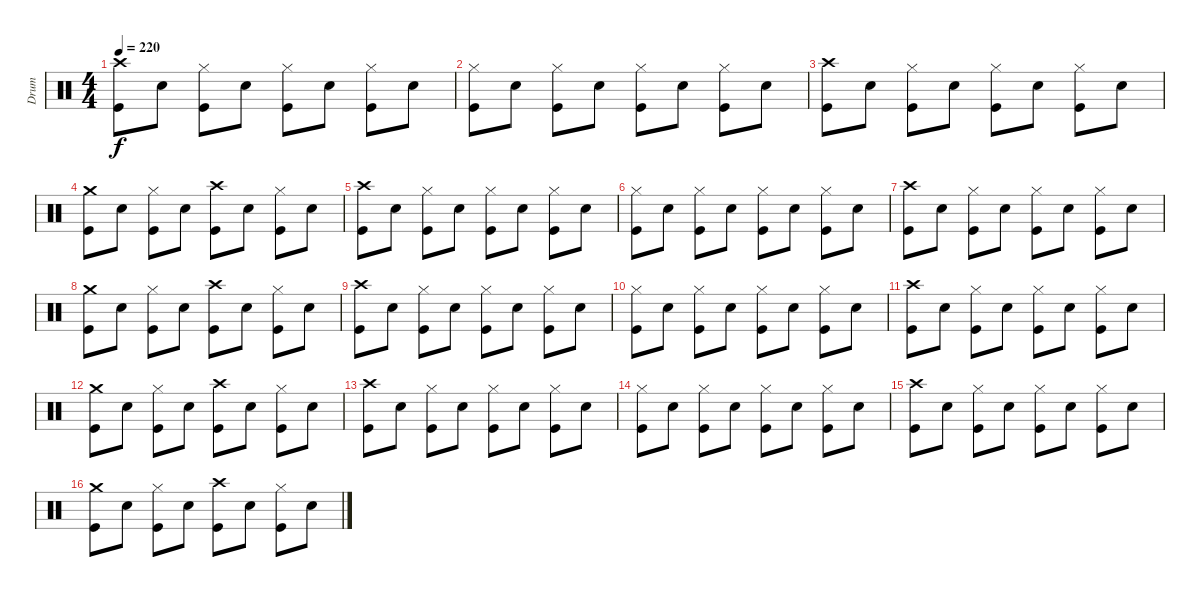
\track ("Drum" "Drum") {instrument percussion}
\staff {score}
\articulation defaults
\ts (4 4)
\tempo 220
\clef neutral
\ks c
("Crash high (hit)" "Kick (hit)").8{dy f} "Snare (hit) 2".8 ("Hi-Hat (closed)" "Kick (hit)").8 "Snare (hit) 2".8 ("Hi-Hat (closed)" "Kick (hit)").8 "Snare (hit) 2".8 ("Hi-Hat (closed)" "Kick (hit)").8 "Snare (hit) 2".8 |
("Hi-Hat (closed)" "Kick (hit)").8 "Snare (hit) 2".8 ("Hi-Hat (closed)" "Kick (hit)").8 "Snare (hit) 2".8 ("Hi-Hat (closed)" "Kick (hit)").8 "Snare (hit) 2".8 ("Hi-Hat (closed)" "Kick (hit)").8 "Snare (hit) 2".8 |
("Crash high (hit)" "Kick (hit)").8 "Snare (hit) 2".8 ("Hi-Hat (closed)" "Kick (hit)").8 "Snare (hit) 2".8 ("Hi-Hat (closed)" "Kick (hit)").8 "Snare (hit) 2".8 ("Hi-Hat (closed)" "Kick (hit)").8 "Snare (hit) 2".8 |
("Crash medium (hit)" "Kick (hit)").8 "Snare (hit) 2".8 ("Hi-Hat (closed)" "Kick (hit)").8 "Snare (hit) 2".8 ("Crash high (hit)" "Kick (hit)").8 "Snare (hit) 2".8 ("Hi-Hat (closed)" "Kick (hit)").8 "Snare (hit) 2".8 |
("Crash high (hit)" "Kick (hit)").8 "Snare (hit) 2".8 ("Hi-Hat (closed)" "Kick (hit)").8 "Snare (hit) 2".8 ("Hi-Hat (closed)" "Kick (hit)").8 "Snare (hit) 2".8 ("Hi-Hat (closed)" "Kick (hit)").8 "Snare (hit) 2".8 |
("Hi-Hat (closed)" "Kick (hit)").8 "Snare (hit) 2".8 ("Hi-Hat (closed)" "Kick (hit)").8 "Snare (hit) 2".8 ("Hi-Hat (closed)" "Kick (hit)").8 "Snare (hit) 2".8 ("Hi-Hat (closed)" "Kick (hit)").8 "Snare (hit) 2".8 |
("Crash high (hit)" "Kick (hit)").8 "Snare (hit) 2".8 ("Hi-Hat (closed)" "Kick (hit)").8 "Snare (hit) 2".8 ("Hi-Hat (closed)" "Kick (hit)").8 "Snare (hit) 2".8 ("Hi-Hat (closed)" "Kick (hit)").8 "Snare (hit) 2".8 |
("Crash medium (hit)" "Kick (hit)").8 "Snare (hit) 2".8 ("Hi-Hat (closed)" "Kick (hit)").8 "Snare (hit) 2".8 ("Crash high (hit)" "Kick (hit)").8 "Snare (hit) 2".8 ("Hi-Hat (closed)" "Kick (hit)").8 "Snare (hit) 2".8 |
("Crash high (hit)" "Kick (hit)").8 "Snare (hit) 2".8 ("Hi-Hat (closed)" "Kick (hit)").8 "Snare (hit) 2".8 ("Hi-Hat (closed)" "Kick (hit)").8 "Snare (hit) 2".8 ("Hi-Hat (closed)" "Kick (hit)").8 "Snare (hit) 2".8 |
("Hi-Hat (closed)" "Kick (hit)").8 "Snare (hit) 2".8 ("Hi-Hat (closed)" "Kick (hit)").8 "Snare (hit) 2".8 ("Hi-Hat (closed)" "Kick (hit)").8 "Snare (hit) 2".8 ("Hi-Hat (closed)" "Kick (hit)").8 "Snare (hit) 2".8 |
("Crash high (hit)" "Kick (hit)").8 "Snare (hit) 2".8 ("Hi-Hat (closed)" "Kick (hit)").8 "Snare (hit) 2".8 ("Hi-Hat (closed)" "Kick (hit)").8 "Snare (hit) 2".8 ("Hi-Hat (closed)" "Kick (hit)").8 "Snare (hit) 2".8 |
("Crash medium (hit)" "Kick (hit)").8 "Snare (hit) 2".8 ("Hi-Hat (closed)" "Kick (hit)").8 "Snare (hit) 2".8 ("Crash high (hit)" "Kick (hit)").8 "Snare (hit) 2".8 ("Hi-Hat (closed)" "Kick (hit)").8 "Snare (hit) 2".8 |
("Crash high (hit)" "Kick (hit)").8 "Snare (hit) 2".8 ("Hi-Hat (closed)" "Kick (hit)").8 "Snare (hit) 2".8 ("Hi-Hat (closed)" "Kick (hit)").8 "Snare (hit) 2".8 ("Hi-Hat (closed)" "Kick (hit)").8 "Snare (hit) 2".8 |
("Hi-Hat (closed)" "Kick (hit)").8 "Snare (hit) 2".8 ("Hi-Hat (closed)" "Kick (hit)").8 "Snare (hit) 2".8 ("Hi-Hat (closed)" "Kick (hit)").8 "Snare (hit) 2".8 ("Hi-Hat (closed)" "Kick (hit)").8 "Snare (hit) 2".8 |
("Crash high (hit)" "Kick (hit)").8 "Snare (hit) 2".8 ("Hi-Hat (closed)" "Kick (hit)").8 "Snare (hit) 2".8 ("Hi-Hat (closed)" "Kick (hit)").8 "Snare (hit) 2".8 ("Hi-Hat (closed)" "Kick (hit)").8 "Snare (hit) 2".8 |
("Crash medium (hit)" "Kick (hit)").8 "Snare (hit) 2".8 ("Hi-Hat (closed)" "Kick (hit)").8 "Snare (hit) 2".8 ("Crash high (hit)" "Kick (hit)").8 "Snare (hit) 2".8 ("Hi-Hat (closed)" "Kick (hit)").8 "Snare (hit) 2".8
